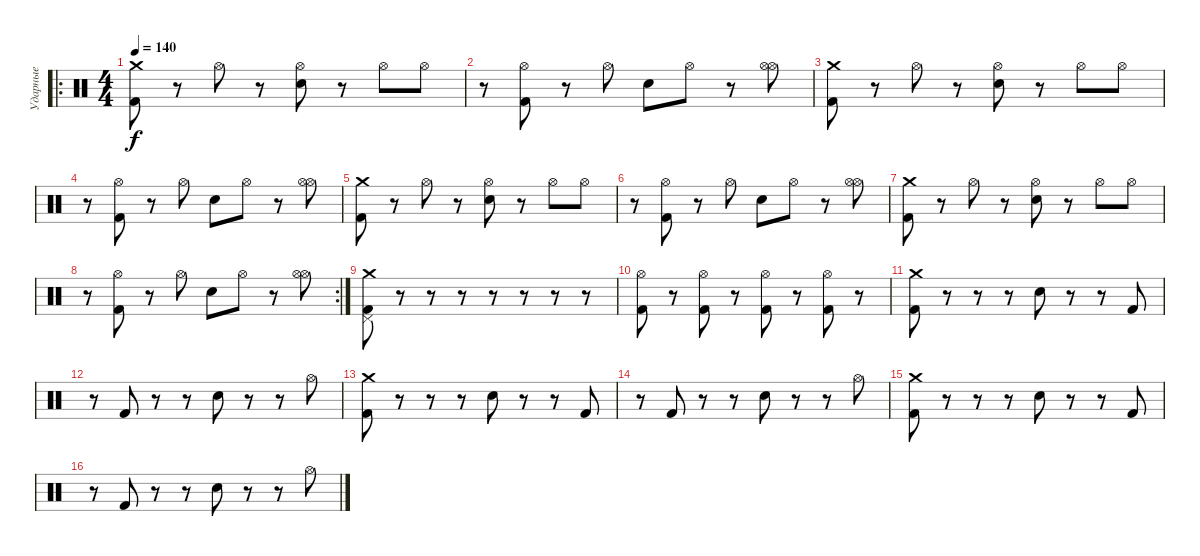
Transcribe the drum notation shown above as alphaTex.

\track ("Ударные" "Ударные") {instrument percussion}
\staff {score}
\articulation defaults
\ro
\ts (4 4)
\tempo 140
\clef neutral
\ks c
("Crash medium (hit)" "Kick (hit) 2").8{dy f} r.8 "Hi-Hat (open)".8 r.8 ("Snare (hit) 2" "Hi-Hat (open)").8 r.8 "Hi-Hat (open)".8 "Hi-Hat (open)".8 |
r.8 ("Hi-Hat (open)" "Kick (hit) 2").8 r.8 "Hi-Hat (open)".8 "Snare (hit) 2".8 "Hi-Hat (open)".8 r.8 ("Hi-Hat (open)" "Hi-Hat (open)").8 |
("Crash medium (hit)" "Kick (hit) 2").8 r.8 "Hi-Hat (open)".8 r.8 ("Snare (hit) 2" "Hi-Hat (open)").8 r.8 "Hi-Hat (open)".8 "Hi-Hat (open)".8 |
r.8 ("Hi-Hat (open)" "Kick (hit) 2").8 r.8 "Hi-Hat (open)".8 "Snare (hit) 2".8 "Hi-Hat (open)".8 r.8 ("Hi-Hat (open)" "Hi-Hat (open)").8 |
("Crash medium (hit)" "Kick (hit) 2").8 r.8 "Hi-Hat (open)".8 r.8 ("Snare (hit) 2" "Hi-Hat (open)").8 r.8 "Hi-Hat (open)".8 "Hi-Hat (open)".8 |
r.8 ("Hi-Hat (open)" "Kick (hit) 2").8 r.8 "Hi-Hat (open)".8 "Snare (hit) 2".8 "Hi-Hat (open)".8 r.8 ("Hi-Hat (open)" "Hi-Hat (open)").8 |
("Crash medium (hit)" "Kick (hit) 2").8 r.8 "Hi-Hat (open)".8 r.8 ("Snare (hit) 2" "Hi-Hat (open)").8 r.8 "Hi-Hat (open)".8 "Hi-Hat (open)".8 |
\rc 2
r.8 ("Hi-Hat (open)" "Kick (hit) 2").8 r.8 "Hi-Hat (open)".8 "Snare (hit) 2".8 "Hi-Hat (open)".8 r.8 ("Hi-Hat (open)" "Hi-Hat (open)").8 |
("Crash medium (hit)" "Pedal Hi-Hat (hit)" "Kick (hit) 2").8 r.8 r.8 r.8 r.8 r.8 r.8 r.8 |
("Hi-Hat (open)" "Kick (hit) 2").8 r.8 ("Hi-Hat (open)" "Kick (hit) 2").8 r.8 ("Hi-Hat (open)" "Kick (hit) 2").8 r.8 ("Hi-Hat (open)" "Kick (hit) 2").8 r.8 |
("Crash medium (hit)" "Kick (hit) 2").8 r.8 r.8 r.8 "Snare (hit) 2".8 r.8 r.8 "Kick (hit) 2".8 |
r.8 "Kick (hit) 2".8 r.8 r.8 "Snare (hit) 2".8 r.8 r.8 "Hi-Hat (open)".8 |
("Crash medium (hit)" "Kick (hit) 2").8 r.8 r.8 r.8 "Snare (hit) 2".8 r.8 r.8 "Kick (hit) 2".8 |
r.8 "Kick (hit) 2".8 r.8 r.8 "Snare (hit) 2".8 r.8 r.8 "Hi-Hat (open)".8 |
("Crash medium (hit)" "Kick (hit) 2").8 r.8 r.8 r.8 "Snare (hit) 2".8 r.8 r.8 "Kick (hit) 2".8 |
r.8 "Kick (hit) 2".8 r.8 r.8 "Snare (hit) 2".8 r.8 r.8 "Hi-Hat (open)".8
